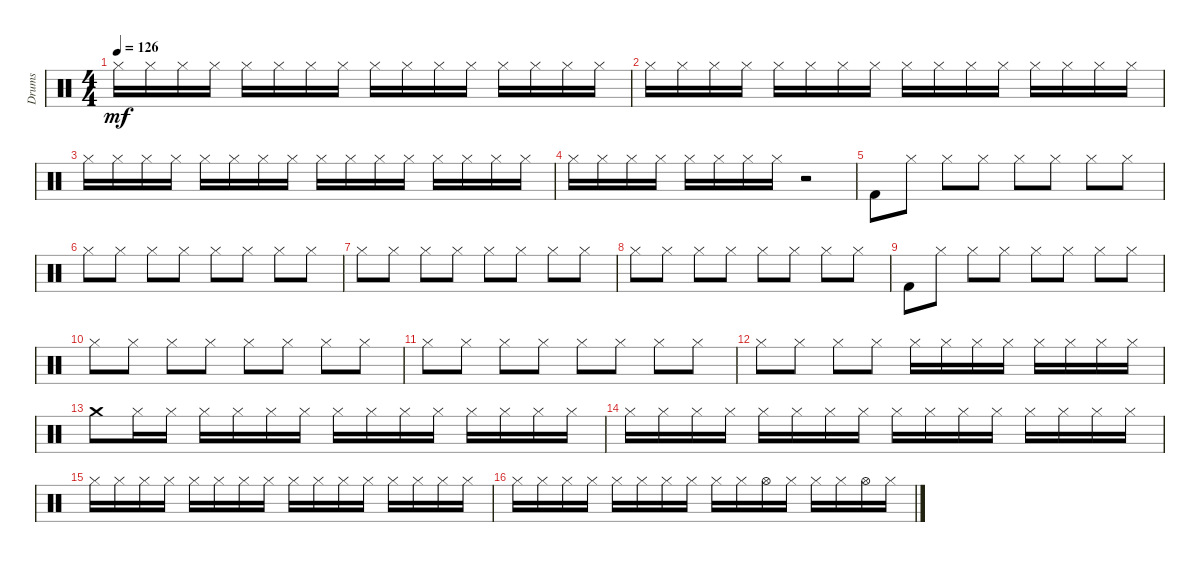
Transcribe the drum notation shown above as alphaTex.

\track ("Drums" "Drums") {instrument percussion}
\staff {score}
\articulation defaults
\ts (4 4)
\tempo 126
\clef neutral
\ks c "Hi-Hat (closed)".16{dy mf} "Hi-Hat (closed)".16 "Hi-Hat (closed)".16 "Hi-Hat (closed)".16 "Hi-Hat (closed)".16 "Hi-Hat (closed)".16 "Hi-Hat (closed)".16 "Hi-Hat (closed)".16 "Hi-Hat (closed)".16 "Hi-Hat (closed)".16 "Hi-Hat (closed)".16 "Hi-Hat (closed)".16 "Hi-Hat (closed)".16 "Hi-Hat (closed)".16 "Hi-Hat (closed)".16 "Hi-Hat (closed)".16
|
"Hi-Hat (closed)".16 "Hi-Hat (closed)".16 "Hi-Hat (closed)".16 "Hi-Hat (closed)".16 "Hi-Hat (closed)".16 "Hi-Hat (closed)".16 "Hi-Hat (closed)".16 "Hi-Hat (closed)".16 "Hi-Hat (closed)".16 "Hi-Hat (closed)".16 "Hi-Hat (closed)".16 "Hi-Hat (closed)".16 "Hi-Hat (closed)".16 "Hi-Hat (closed)".16 "Hi-Hat (closed)".16 "Hi-Hat (closed)".16 |
"Hi-Hat (closed)".16 "Hi-Hat (closed)".16 "Hi-Hat (closed)".16 "Hi-Hat (closed)".16 "Hi-Hat (closed)".16 "Hi-Hat (closed)".16 "Hi-Hat (closed)".16 "Hi-Hat (closed)".16 "Hi-Hat (closed)".16 "Hi-Hat (closed)".16 "Hi-Hat (closed)".16 "Hi-Hat (closed)".16 "Hi-Hat (closed)".16 "Hi-Hat (closed)".16 "Hi-Hat (closed)".16 "Hi-Hat (closed)".16 |
"Hi-Hat (closed)".16 "Hi-Hat (closed)".16 "Hi-Hat (closed)".16 "Hi-Hat (closed)".16 "Hi-Hat (closed)".16 "Hi-Hat (closed)".16 "Hi-Hat (closed)".16 "Hi-Hat (closed)".16 r.2 |
"Kick (hit) 2".8 "Hi-Hat (closed)".8 "Hi-Hat (closed)".8 "Hi-Hat (closed)".8 "Hi-Hat (closed)".8 "Hi-Hat (closed)".8 "Hi-Hat (closed)".8 "Hi-Hat (closed)".8 |
"Hi-Hat (closed)".8 "Hi-Hat (closed)".8 "Hi-Hat (closed)".8 "Hi-Hat (closed)".8 "Hi-Hat (closed)".8 "Hi-Hat (closed)".8 "Hi-Hat (closed)".8 "Hi-Hat (closed)".8 |
"Hi-Hat (closed)".8 "Hi-Hat (closed)".8 "Hi-Hat (closed)".8 "Hi-Hat (closed)".8 "Hi-Hat (closed)".8 "Hi-Hat (closed)".8 "Hi-Hat (closed)".8 "Hi-Hat (closed)".8 |
"Hi-Hat (closed)".8 "Hi-Hat (closed)".8 "Hi-Hat (closed)".8 "Hi-Hat (closed)".8 "Hi-Hat (closed)".8 "Hi-Hat (closed)".8 "Hi-Hat (closed)".8 "Hi-Hat (closed)".8 |
"Kick (hit) 2".8 "Hi-Hat (closed)".8 "Hi-Hat (closed)".8 "Hi-Hat (closed)".8 "Hi-Hat (closed)".8 "Hi-Hat (closed)".8 "Hi-Hat (closed)".8 "Hi-Hat (closed)".8 |
"Hi-Hat (closed)".8 "Hi-Hat (closed)".8 "Hi-Hat (closed)".8 "Hi-Hat (closed)".8 "Hi-Hat (closed)".8 "Hi-Hat (closed)".8 "Hi-Hat (closed)".8 "Hi-Hat (closed)".8 |
"Hi-Hat (closed)".8 "Hi-Hat (closed)".8 "Hi-Hat (closed)".8 "Hi-Hat (closed)".8 "Hi-Hat (closed)".8 "Hi-Hat (closed)".8 "Hi-Hat (closed)".8 "Hi-Hat (closed)".8 |
"Hi-Hat (closed)".8 "Hi-Hat (closed)".8 "Hi-Hat (closed)".8 "Hi-Hat (closed)".8 "Hi-Hat (closed)".16 "Hi-Hat (closed)".16 "Hi-Hat (closed)".16 "Hi-Hat (closed)".16 "Hi-Hat (closed)".16 "Hi-Hat (closed)".16 "Hi-Hat (closed)".16 "Hi-Hat (closed)".16 |
"Crash medium (hit)".8 "Hi-Hat (closed)".16 "Hi-Hat (closed)".16 "Hi-Hat (closed)".16 "Hi-Hat (closed)".16 "Hi-Hat (closed)".16 "Hi-Hat (closed)".16 "Hi-Hat (closed)".16 "Hi-Hat (closed)".16 "Hi-Hat (closed)".16 "Hi-Hat (closed)".16 "Hi-Hat (closed)".16 "Hi-Hat (closed)".16 "Hi-Hat (closed)".16 "Hi-Hat (closed)".16 |
"Hi-Hat (closed)".16 "Hi-Hat (closed)".16 "Hi-Hat (closed)".16 "Hi-Hat (closed)".16 "Hi-Hat (closed)".16 "Hi-Hat (closed)".16 "Hi-Hat (closed)".16 "Hi-Hat (closed)".16 "Hi-Hat (closed)".16 "Hi-Hat (closed)".16 "Hi-Hat (closed)".16 "Hi-Hat (closed)".16 "Hi-Hat (closed)".16 "Hi-Hat (closed)".16 "Hi-Hat (closed)".16 "Hi-Hat (closed)".16 |
"Hi-Hat (closed)".16 "Hi-Hat (closed)".16 "Hi-Hat (closed)".16 "Hi-Hat (closed)".16 "Hi-Hat (closed)".16 "Hi-Hat (closed)".16 "Hi-Hat (closed)".16 "Hi-Hat (closed)".16 "Hi-Hat (closed)".16 "Hi-Hat (closed)".16 "Hi-Hat (closed)".16 "Hi-Hat (closed)".16 "Hi-Hat (closed)".16 "Hi-Hat (closed)".16 "Hi-Hat (closed)".16 "Hi-Hat (closed)".16 |
"Hi-Hat (closed)".16 "Hi-Hat (closed)".16 "Hi-Hat (closed)".16 "Hi-Hat (closed)".16 "Hi-Hat (closed)".16 "Hi-Hat (closed)".16 "Hi-Hat (closed)".16 "Hi-Hat (closed)".16 "Hi-Hat (closed)".16 "Hi-Hat (closed)".16 "Hi-Hat (open)".16 "Hi-Hat (closed)".16 "Hi-Hat (closed)".16 "Hi-Hat (closed)".16 "Hi-Hat (open)".16 "Hi-Hat (closed)".16
